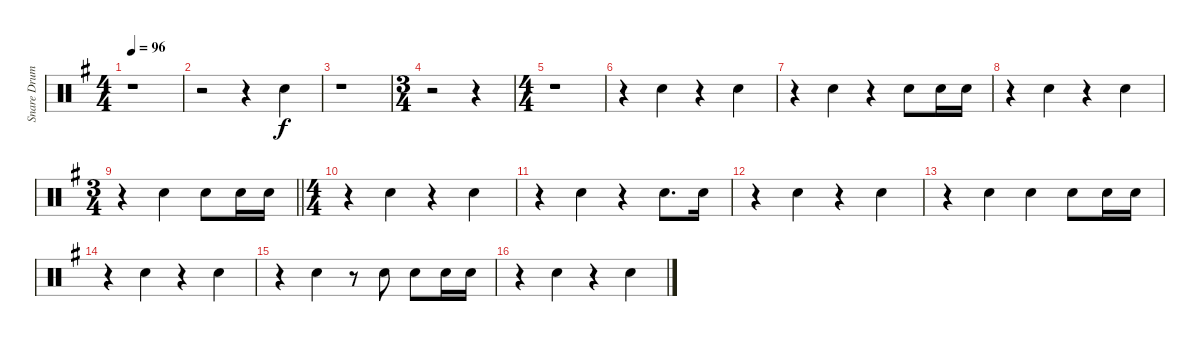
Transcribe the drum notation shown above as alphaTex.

\track ("Snare Drum - reverb" "Snare Drum") {instrument percussion}
\staff {score}
\articulation defaults
\ts (4 4)
\tempo 96
\clef neutral
\ks g
r.1{dy f volume 14} |
r.2 r.4 "Snare (hit) 2".4 |
r.1 |
\ts (3 4)
r.2 r.4 |
\ts (4 4)
r.1 |
r.4{beam merge} "Snare (hit) 2".4 r.4{beam merge} "Snare (hit) 2".4 |
r.4{beam merge} "Snare (hit) 2".4 r.4 "Snare (hit) 2".8 "Snare (hit) 2".16 "Snare (hit) 2".16 |
r.4{beam merge} "Snare (hit) 2".4 r.4{beam merge} "Snare (hit) 2".4 |
\ts (3 4)
\barLineRight lightlight
r.4{beam merge} "Snare (hit) 2".4 "Snare (hit) 2".8 "Snare (hit) 2".16 "Snare (hit) 2".16 |
\ts (4 4)
r.4{beam merge} "Snare (hit) 2".4 r.4{beam merge} "Snare (hit) 2".4 |
r.4{beam merge} "Snare (hit) 2".4 r.4 "Snare (hit) 2".8{d} "Snare (hit) 2".16 |
r.4{beam merge} "Snare (hit) 2".4 r.4{beam merge} "Snare (hit) 2".4 |
r.4{beam merge} "Snare (hit) 2".4{beam merge} "Snare (hit) 2".4 "Snare (hit) 2".8 "Snare (hit) 2".16 "Snare (hit) 2".16 |
r.4{beam merge} "Snare (hit) 2".4 r.4{beam merge} "Snare (hit) 2".4 |
r.4{beam merge} "Snare (hit) 2".4 r.8 "Snare (hit) 2".8 "Snare (hit) 2".8 "Snare (hit) 2".16 "Snare (hit) 2".16 |
r.4{beam merge} "Snare (hit) 2".4 r.4{beam merge} "Snare (hit) 2".4
